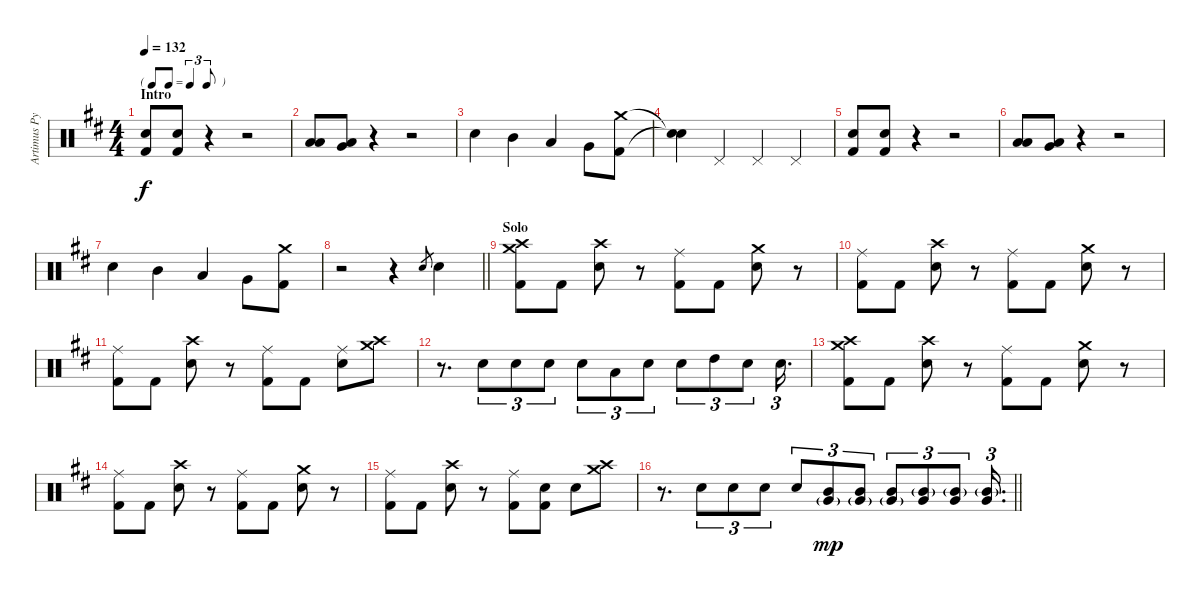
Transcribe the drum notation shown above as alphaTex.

\track ("Artimus Pyle - Drums" "Artimus Py") {solo instrument percussion}
\staff {score}
\articulation defaults
\ts (4 4)
\tf triplet8th
\section ("" "Intro")
\tempo 132
\clef neutral
\ks d
("Snare (hit) 2" "Kick (hit) 2").8{dy f} ("Snare (hit) 2" "Kick (hit) 2").8 r.4 r.2 |
("Low Tom (hit)" "Low Tom (hit)").8 ("Low Tom (hit)" "Very Low Tom (hit)").8 r.4 r.2 |
"Snare (hit) 2".4 "Mid Tom (hit)".4 "Low Tom (hit)".4 "Very Low Tom (hit)".8 ("Crash medium (hit)" "Kick (hit) 2").8 |
("Snare (hit)"{t} "Snare (hit)"{t}).4 "Pedal Hi-Hat (hit)".4 "Pedal Hi-Hat (hit)".4 "Pedal Hi-Hat (hit)".4 |
("Snare (hit) 2" "Kick (hit) 2").8 ("Snare (hit) 2" "Kick (hit) 2").8 r.4 r.2 |
("Low Tom (hit)" "Low Tom (hit)").8 ("Low Tom (hit)" "Very Low Tom (hit)").8 r.4 r.2 |
"Snare (hit) 2".4 "Mid Tom (hit)".4 "Low Tom (hit)".4 "Very Low Tom (hit)".8 ("Crash medium (hit)" "Kick (hit) 2").8 |
\barLineRight lightlight
r.2 r.4 "Snare (hit) 2".8{gr} "Snare (hit) 2".4 |
\section ("" "Solo")
("Crash high (hit)" "Crash medium (hit)" "Kick (hit) 2").8 "Kick (hit) 2".8 ("Crash high (hit)" "Snare (hit) 2").8 r.8 ("Ride (middle)" "Kick (hit) 2").8 "Kick (hit) 2".8 ("Crash medium (hit)" "Snare (hit) 2").8 r.8 |
("Ride (middle)" "Kick (hit) 2").8 "Kick (hit) 2".8 ("Crash high (hit)" "Snare (hit) 2").8 r.8 ("Ride (middle)" "Kick (hit) 2").8 "Kick (hit) 2".8 ("Crash medium (hit)" "Snare (hit) 2").8 r.8 |
("Ride (middle)" "Kick (hit) 2").8 "Kick (hit) 2".8 ("Crash high (hit)" "Snare (hit) 2").8 r.8 ("Ride (middle)" "Kick (hit) 2").8 "Kick (hit) 2".8 ("Ride (middle)" "Snare (hit) 2").8 ("Crash high (hit)" "Crash medium (hit)").8 |
r.8{d} "Snare (hit) 2".8{tu (3 2)} "Snare (hit) 2".8{tu (3 2)} "Snare (hit) 2".8{tu (3 2)} "Snare (hit) 2".8{tu (3 2)} "Low Floor Tom (hit)".8{tu (3 2)} "Snare (hit) 2".8{tu (3 2)} "Snare (hit) 2".8{tu (3 2)} "High Tom (hit)".8{tu (3 2)} "Snare (hit) 2".8{tu (3 2)} "Snare (hit) 2".16{d tu (3 2)} |
("Crash high (hit)" "Crash medium (hit)" "Kick (hit) 2").8 "Kick (hit) 2".8 ("Crash high (hit)" "Snare (hit) 2").8 r.8 ("Ride (middle)" "Kick (hit) 2").8 "Kick (hit) 2".8 ("Crash medium (hit)" "Snare (hit) 2").8 r.8 |
("Ride (middle)" "Kick (hit) 2").8 "Kick (hit) 2".8 ("Crash high (hit)" "Snare (hit) 2").8 r.8 ("Ride (middle)" "Kick (hit) 2").8 "Kick (hit) 2".8 ("Crash medium (hit)" "Snare (hit) 2").8 r.8 |
("Ride (middle)" "Kick (hit) 2").8 "Kick (hit) 2".8 ("Crash high (hit)" "Snare (hit) 2").8 r.8 ("Ride (middle)" "Kick (hit) 2").8 ("Snare (hit) 2" "Kick (hit) 2").8 "Snare (hit) 2".8 ("Crash high (hit)" "Crash medium (hit)").8 |
\barLineRight lightlight
r.8{d} "Snare (hit) 2".8{tu (3 2)} "Snare (hit) 2".8{tu (3 2)} "Snare (hit) 2".8{tu (3 2)} "Snare (hit) 2".8{tu (3 2)} ("Very Low Tom (hit)"{g} "Mid Tom (hit)").8{tu (3 2) dy mp} ("Very Low Tom (hit)"{g} "Mid Tom (hit)").8{tu (3 2)} ("Very Low Tom (hit)"{g} "Mid Tom (hit)").8{tu (3 2)} ("Mid Tom (hit)"{g} "Very Low Tom (hit)").8{tu (3 2)} ("Mid Tom (hit)"{g} "Very Low Tom (hit)").8{tu (3 2)} ("Mid Tom (hit)"{g} "Very Low Tom (hit)").16{d tu (3 2)}
